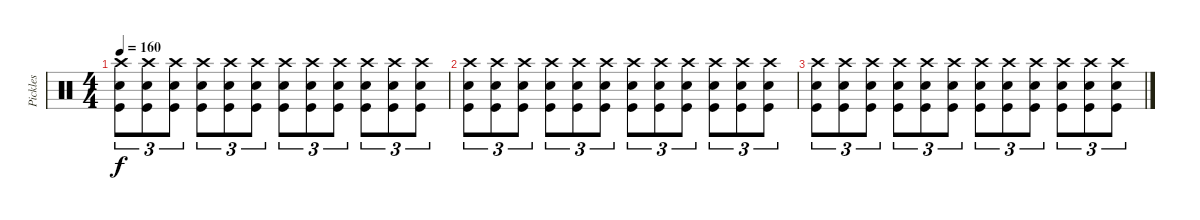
\track ("Pickles" "Pickles") {instrument percussion}
\staff {score}
\articulation defaults
\ts (4 4)
\tempo 160
\clef neutral
\ks c
("Crash high (hit)" "Snare (hit) 2" "Kick (hit)").8{tu (3 2) dy f} ("Crash high (hit)" "Snare (hit) 2" "Kick (hit)").8{tu (3 2)} ("Crash high (hit)" "Snare (hit) 2" "Kick (hit)").8{tu (3 2)} ("Crash high (hit)" "Snare (hit) 2" "Kick (hit)").8{tu (3 2)} ("Crash high (hit)" "Snare (hit) 2" "Kick (hit)").8{tu (3 2)} ("Crash high (hit)" "Snare (hit) 2" "Kick (hit)").8{tu (3 2)} ("Crash high (hit)" "Snare (hit) 2" "Kick (hit)").8{tu (3 2)} ("Crash high (hit)" "Snare (hit) 2" "Kick (hit)").8{tu (3 2)} ("Crash high (hit)" "Snare (hit) 2" "Kick (hit)").8{tu (3 2)} ("Crash high (hit)" "Snare (hit) 2" "Kick (hit)").8{tu (3 2)} ("Crash high (hit)" "Snare (hit) 2" "Kick (hit)").8{tu (3 2)} ("Crash high (hit)" "Snare (hit) 2" "Kick (hit)").8{tu (3 2)} |
("Crash high (hit)" "Snare (hit) 2" "Kick (hit)").8{tu (3 2)} ("Crash high (hit)" "Snare (hit) 2" "Kick (hit)").8{tu (3 2)} ("Crash high (hit)" "Snare (hit) 2" "Kick (hit)").8{tu (3 2)} ("Crash high (hit)" "Snare (hit) 2" "Kick (hit)").8{tu (3 2)} ("Crash high (hit)" "Snare (hit) 2" "Kick (hit)").8{tu (3 2)} ("Crash high (hit)" "Snare (hit) 2" "Kick (hit)").8{tu (3 2)} ("Crash high (hit)" "Snare (hit) 2" "Kick (hit)").8{tu (3 2)} ("Crash high (hit)" "Snare (hit) 2" "Kick (hit)").8{tu (3 2)} ("Crash high (hit)" "Snare (hit) 2" "Kick (hit)").8{tu (3 2)} ("Crash high (hit)" "Snare (hit) 2" "Kick (hit)").8{tu (3 2)} ("Crash high (hit)" "Snare (hit) 2" "Kick (hit)").8{tu (3 2)} ("Crash high (hit)" "Snare (hit) 2" "Kick (hit)").8{tu (3 2)} |
("Crash high (hit)" "Snare (hit) 2" "Kick (hit)").8{tu (3 2)} ("Crash high (hit)" "Snare (hit) 2" "Kick (hit)").8{tu (3 2)} ("Crash high (hit)" "Snare (hit) 2" "Kick (hit)").8{tu (3 2)} ("Crash high (hit)" "Snare (hit) 2" "Kick (hit)").8{tu (3 2)} ("Crash high (hit)" "Snare (hit) 2" "Kick (hit)").8{tu (3 2)} ("Crash high (hit)" "Snare (hit) 2" "Kick (hit)").8{tu (3 2)} ("Crash high (hit)" "Snare (hit) 2" "Kick (hit)").8{tu (3 2)} ("Crash high (hit)" "Snare (hit) 2" "Kick (hit)").8{tu (3 2)} ("Crash high (hit)" "Snare (hit) 2" "Kick (hit)").8{tu (3 2)} ("Crash high (hit)" "Snare (hit) 2" "Kick (hit)").8{tu (3 2)} ("Crash high (hit)" "Snare (hit) 2" "Kick (hit)").8{tu (3 2)} ("Crash high (hit)" "Snare (hit) 2" "Kick (hit)").8{tu (3 2)}
